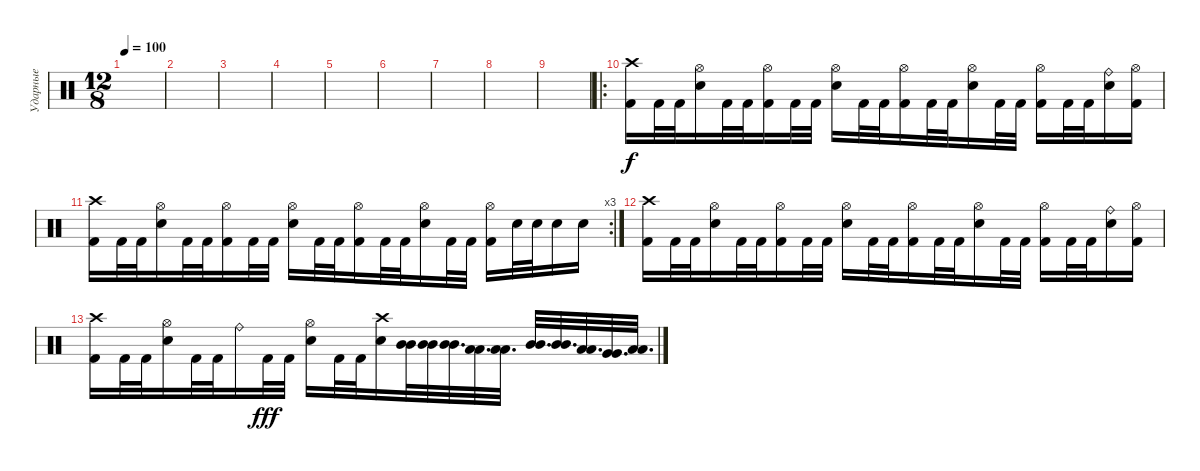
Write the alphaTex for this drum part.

\track ("Ударные" "Ударные") {instrument percussion}
\staff {score}
\articulation defaults
\ts (12 8)
\tempo 100
\clef neutral
\ks c
|
|
|
|
|
|
|
|
|
\ro
("Crash high (hit)" "Kick (hit) 2").16 "Kick (hit) 2".32 "Kick (hit) 2".32 ("Hi-Hat (open)" "Electric Snare (hit)").16 "Kick (hit) 2".32 "Kick (hit) 2".32 ("Hi-Hat (open)" "Kick (hit) 2").16 "Kick (hit) 2".32 "Kick (hit) 2".32 ("Hi-Hat (open)" "Electric Snare (hit)").16 "Kick (hit) 2".32 "Kick (hit) 2".32 ("Hi-Hat (open)" "Kick (hit) 2").16 "Kick (hit) 2".32 "Kick (hit) 2".32 ("Hi-Hat (open)" "Electric Snare (hit)").16 "Kick (hit) 2".32 "Kick (hit) 2".32 ("Hi-Hat (open)" "Kick (hit) 2").16 "Kick (hit) 2".32 "Kick (hit) 2".32 ("Ride (bell)" "Electric Snare (hit)").16 ("Hi-Hat (open)" "Kick (hit) 2").16 |
\rc 3
("Crash high (hit)" "Kick (hit) 2").16 "Kick (hit) 2".32 "Kick (hit) 2".32 ("Hi-Hat (open)" "Electric Snare (hit)").16 "Kick (hit) 2".32 "Kick (hit) 2".32 ("Hi-Hat (open)" "Kick (hit) 2").16 "Kick (hit) 2".32 "Kick (hit) 2".32 ("Hi-Hat (open)" "Electric Snare (hit)").16 "Kick (hit) 2".32 "Kick (hit) 2".32 ("Hi-Hat (open)" "Kick (hit) 2").16 "Kick (hit) 2".32 "Kick (hit) 2".32 ("Hi-Hat (open)" "Electric Snare (hit)").16 "Kick (hit) 2".32 "Kick (hit) 2".32 ("Hi-Hat (open)" "Kick (hit) 2").16 "Electric Snare (hit)".32 "Electric Snare (hit)".32 "Electric Snare (hit)".16 "Electric Snare (hit)".16 |
("Crash high (hit)" "Kick (hit) 2").16 "Kick (hit) 2".32 "Kick (hit) 2".32 ("Hi-Hat (open)" "Electric Snare (hit)").16 "Kick (hit) 2".32 "Kick (hit) 2".32 ("Hi-Hat (open)" "Kick (hit) 2").16 "Kick (hit) 2".32 "Kick (hit) 2".32 ("Hi-Hat (open)" "Electric Snare (hit)").16 "Kick (hit) 2".32 "Kick (hit) 2".32 ("Hi-Hat (open)" "Kick (hit) 2").16 "Kick (hit) 2".32 "Kick (hit) 2".32 ("Hi-Hat (open)" "Electric Snare (hit)").16 "Kick (hit) 2".32 "Kick (hit) 2".32 ("Hi-Hat (open)" "Kick (hit) 2").16 "Kick (hit) 2".32 "Kick (hit) 2".32 ("Ride (bell)" "Electric Snare (hit)").16 ("Hi-Hat (open)" "Kick (hit) 2").16 |
("Crash high (hit)" "Kick (hit) 2").16 "Kick (hit) 2".32 "Kick (hit) 2".32 ("Hi-Hat (open)" "Electric Snare (hit)").16 "Kick (hit) 2".32 "Kick (hit) 2".32 "Ride (bell)".16{dy f} "Kick (hit) 2".32{dy fff} "Kick (hit) 2".32 ("Hi-Hat (open)" "Electric Snare (hit)").16 "Kick (hit) 2".32 "Kick (hit) 2".32 ("Crash high (hit)" "Electric Snare (hit)").16 ("Mid Tom (hit)" "Mid Tom (hit)").32 ("Mid Tom (hit)" "Mid Tom (hit)").32 ("Mid Tom (hit)" "Mid Tom (hit)").32{d} ("Low Tom (hit)" "Low Tom (hit)").32{d} ("Low Tom (hit)" "Low Tom (hit)").32{d} ("Mid Tom (hit)" "Mid Tom (hit)").32{d} ("Mid Tom (hit)" "Mid Tom (hit)").32{d} ("Low Tom (hit)" "Low Tom (hit)").32{d} ("Very Low Tom (hit)" "Very Low Tom (hit)").32{d} ("Low Floor Tom (hit)" "Low Floor Tom (hit)").32{d}
